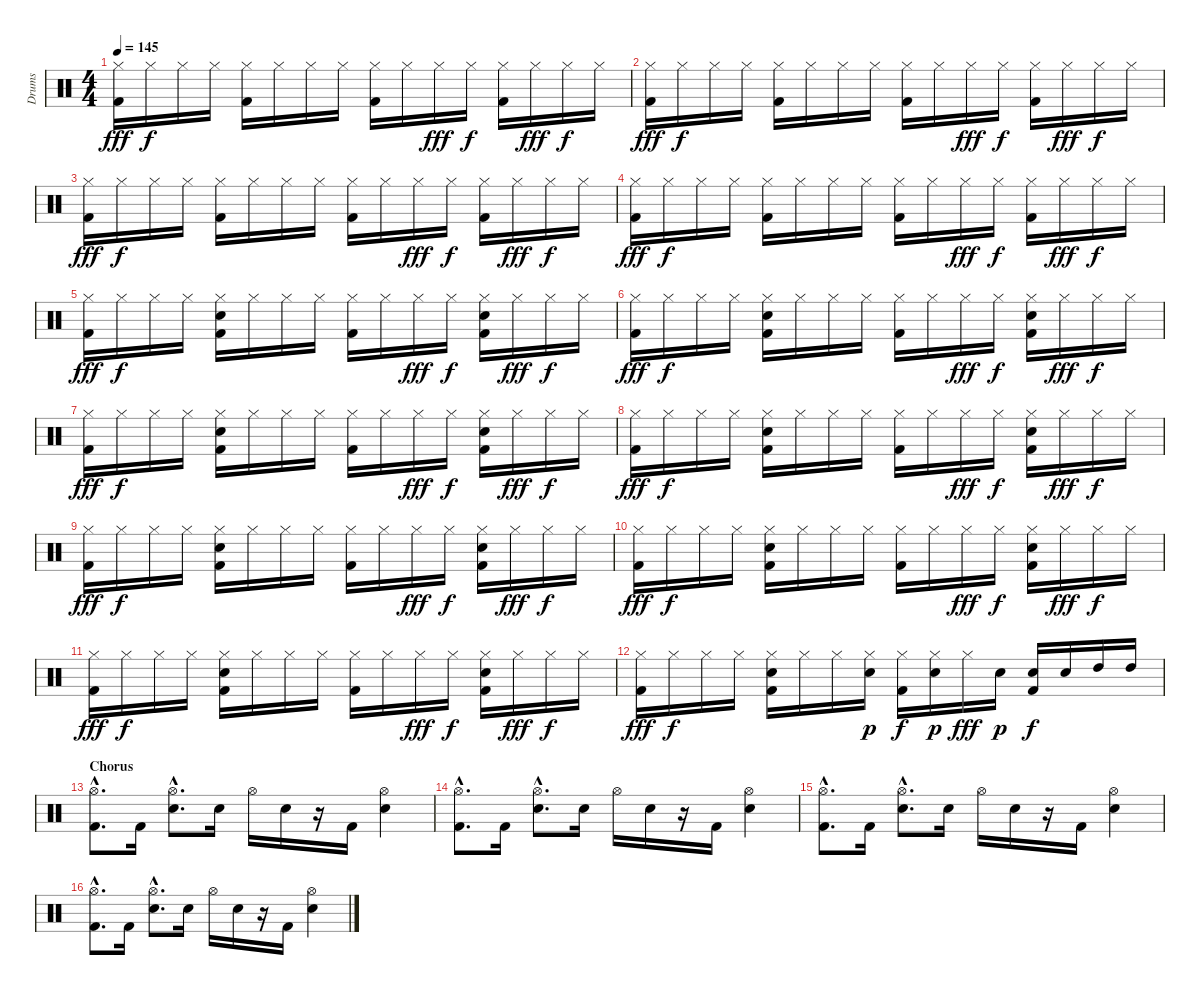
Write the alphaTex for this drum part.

\track ("Drums" "Drums") {instrument percussion}
\staff {score}
\articulation defaults
\ts (4 4)
\tempo 145
\clef neutral
\ks c
("Hi-Hat (closed)" "Kick (hit) 2").16{dy fff} "Hi-Hat (closed)".16{dy f} "Hi-Hat (closed)".16 "Hi-Hat (closed)".16 ("Hi-Hat (closed)" "Kick (hit) 2").16 "Hi-Hat (closed)".16 "Hi-Hat (closed)".16 "Hi-Hat (closed)".16 ("Hi-Hat (closed)" "Kick (hit) 2").16 "Hi-Hat (closed)".16 "Hi-Hat (closed)".16{dy fff} "Hi-Hat (closed)".16{dy f} ("Hi-Hat (closed)" "Kick (hit) 2").16 "Hi-Hat (closed)".16{dy fff} "Hi-Hat (closed)".16{dy f} "Hi-Hat (closed)".16 |
("Hi-Hat (closed)" "Kick (hit) 2").16{dy fff} "Hi-Hat (closed)".16{dy f} "Hi-Hat (closed)".16 "Hi-Hat (closed)".16 ("Hi-Hat (closed)" "Kick (hit) 2").16 "Hi-Hat (closed)".16 "Hi-Hat (closed)".16 "Hi-Hat (closed)".16 ("Hi-Hat (closed)" "Kick (hit) 2").16 "Hi-Hat (closed)".16 "Hi-Hat (closed)".16{dy fff} "Hi-Hat (closed)".16{dy f} ("Hi-Hat (closed)" "Kick (hit) 2").16 "Hi-Hat (closed)".16{dy fff} "Hi-Hat (closed)".16{dy f} "Hi-Hat (closed)".16 |
("Hi-Hat (closed)" "Kick (hit) 2").16{dy fff} "Hi-Hat (closed)".16{dy f} "Hi-Hat (closed)".16 "Hi-Hat (closed)".16 ("Hi-Hat (closed)" "Kick (hit) 2").16 "Hi-Hat (closed)".16 "Hi-Hat (closed)".16 "Hi-Hat (closed)".16 ("Hi-Hat (closed)" "Kick (hit) 2").16 "Hi-Hat (closed)".16 "Hi-Hat (closed)".16{dy fff} "Hi-Hat (closed)".16{dy f} ("Hi-Hat (closed)" "Kick (hit) 2").16 "Hi-Hat (closed)".16{dy fff} "Hi-Hat (closed)".16{dy f} "Hi-Hat (closed)".16 |
("Hi-Hat (closed)" "Kick (hit) 2").16{dy fff} "Hi-Hat (closed)".16{dy f} "Hi-Hat (closed)".16 "Hi-Hat (closed)".16 ("Hi-Hat (closed)" "Kick (hit) 2").16 "Hi-Hat (closed)".16 "Hi-Hat (closed)".16 "Hi-Hat (closed)".16 ("Hi-Hat (closed)" "Kick (hit) 2").16 "Hi-Hat (closed)".16 "Hi-Hat (closed)".16{dy fff} "Hi-Hat (closed)".16{dy f} ("Hi-Hat (closed)" "Kick (hit) 2").16 "Hi-Hat (closed)".16{dy fff} "Hi-Hat (closed)".16{dy f} "Hi-Hat (closed)".16 |
("Hi-Hat (closed)" "Kick (hit) 2").16{dy fff} "Hi-Hat (closed)".16{dy f} "Hi-Hat (closed)".16 "Hi-Hat (closed)".16 ("Hi-Hat (closed)" "Electric Snare (hit)" "Kick (hit) 2").16 "Hi-Hat (closed)".16 "Hi-Hat (closed)".16 "Hi-Hat (closed)".16 ("Hi-Hat (closed)" "Kick (hit) 2").16 "Hi-Hat (closed)".16 "Hi-Hat (closed)".16{dy fff} "Hi-Hat (closed)".16{dy f} ("Hi-Hat (closed)" "Electric Snare (hit)" "Kick (hit) 2").16 "Hi-Hat (closed)".16{dy fff} "Hi-Hat (closed)".16{dy f} "Hi-Hat (closed)".16 |
("Hi-Hat (closed)" "Kick (hit) 2").16{dy fff} "Hi-Hat (closed)".16{dy f} "Hi-Hat (closed)".16 "Hi-Hat (closed)".16 ("Hi-Hat (closed)" "Electric Snare (hit)" "Kick (hit) 2").16 "Hi-Hat (closed)".16 "Hi-Hat (closed)".16 "Hi-Hat (closed)".16 ("Hi-Hat (closed)" "Kick (hit) 2").16 "Hi-Hat (closed)".16 "Hi-Hat (closed)".16{dy fff} "Hi-Hat (closed)".16{dy f} ("Hi-Hat (closed)" "Electric Snare (hit)" "Kick (hit) 2").16 "Hi-Hat (closed)".16{dy fff} "Hi-Hat (closed)".16{dy f} "Hi-Hat (closed)".16 |
("Hi-Hat (closed)" "Kick (hit) 2").16{dy fff} "Hi-Hat (closed)".16{dy f} "Hi-Hat (closed)".16 "Hi-Hat (closed)".16 ("Hi-Hat (closed)" "Electric Snare (hit)" "Kick (hit) 2").16 "Hi-Hat (closed)".16 "Hi-Hat (closed)".16 "Hi-Hat (closed)".16 ("Hi-Hat (closed)" "Kick (hit) 2").16 "Hi-Hat (closed)".16 "Hi-Hat (closed)".16{dy fff} "Hi-Hat (closed)".16{dy f} ("Hi-Hat (closed)" "Electric Snare (hit)" "Kick (hit) 2").16 "Hi-Hat (closed)".16{dy fff} "Hi-Hat (closed)".16{dy f} "Hi-Hat (closed)".16 |
("Hi-Hat (closed)" "Kick (hit) 2").16{dy fff} "Hi-Hat (closed)".16{dy f} "Hi-Hat (closed)".16 "Hi-Hat (closed)".16 ("Hi-Hat (closed)" "Electric Snare (hit)" "Kick (hit) 2").16 "Hi-Hat (closed)".16 "Hi-Hat (closed)".16 "Hi-Hat (closed)".16 ("Hi-Hat (closed)" "Kick (hit) 2").16 "Hi-Hat (closed)".16 "Hi-Hat (closed)".16{dy fff} "Hi-Hat (closed)".16{dy f} ("Hi-Hat (closed)" "Electric Snare (hit)" "Kick (hit) 2").16 "Hi-Hat (closed)".16{dy fff} "Hi-Hat (closed)".16{dy f} "Hi-Hat (closed)".16 |
("Hi-Hat (closed)" "Kick (hit) 2").16{dy fff} "Hi-Hat (closed)".16{dy f} "Hi-Hat (closed)".16 "Hi-Hat (closed)".16 ("Hi-Hat (closed)" "Electric Snare (hit)" "Kick (hit) 2").16 "Hi-Hat (closed)".16 "Hi-Hat (closed)".16 "Hi-Hat (closed)".16 ("Hi-Hat (closed)" "Kick (hit) 2").16 "Hi-Hat (closed)".16 "Hi-Hat (closed)".16{dy fff} "Hi-Hat (closed)".16{dy f} ("Hi-Hat (closed)" "Electric Snare (hit)" "Kick (hit) 2").16 "Hi-Hat (closed)".16{dy fff} "Hi-Hat (closed)".16{dy f} "Hi-Hat (closed)".16 |
("Hi-Hat (closed)" "Kick (hit) 2").16{dy fff} "Hi-Hat (closed)".16{dy f} "Hi-Hat (closed)".16 "Hi-Hat (closed)".16 ("Hi-Hat (closed)" "Electric Snare (hit)" "Kick (hit) 2").16 "Hi-Hat (closed)".16 "Hi-Hat (closed)".16 "Hi-Hat (closed)".16 ("Hi-Hat (closed)" "Kick (hit) 2").16 "Hi-Hat (closed)".16 "Hi-Hat (closed)".16{dy fff} "Hi-Hat (closed)".16{dy f} ("Hi-Hat (closed)" "Electric Snare (hit)" "Kick (hit) 2").16 "Hi-Hat (closed)".16{dy fff} "Hi-Hat (closed)".16{dy f} "Hi-Hat (closed)".16 |
("Hi-Hat (closed)" "Kick (hit) 2").16{dy fff} "Hi-Hat (closed)".16{dy f} "Hi-Hat (closed)".16 "Hi-Hat (closed)".16 ("Hi-Hat (closed)" "Electric Snare (hit)" "Kick (hit) 2").16 "Hi-Hat (closed)".16 "Hi-Hat (closed)".16 "Hi-Hat (closed)".16 ("Hi-Hat (closed)" "Kick (hit) 2").16 "Hi-Hat (closed)".16 "Hi-Hat (closed)".16{dy fff} "Hi-Hat (closed)".16{dy f} ("Hi-Hat (closed)" "Electric Snare (hit)" "Kick (hit) 2").16 "Hi-Hat (closed)".16{dy fff} "Hi-Hat (closed)".16{dy f} "Hi-Hat (closed)".16 |
("Hi-Hat (closed)" "Kick (hit) 2").16{dy fff} "Hi-Hat (closed)".16{dy f} "Hi-Hat (closed)".16 "Hi-Hat (closed)".16 ("Hi-Hat (closed)" "Electric Snare (hit)" "Kick (hit) 2").16 "Hi-Hat (closed)".16 "Hi-Hat (closed)".16 ("Hi-Hat (closed)" "Electric Snare (hit)").16{dy p} ("Hi-Hat (closed)" "Kick (hit) 2").16{dy f} ("Hi-Hat (closed)" "Electric Snare (hit)").16{dy p} "Hi-Hat (closed)".16{dy fff} "Electric Snare (hit)".16{dy p} ("Electric Snare (hit)" "Kick (hit) 2").16{dy f} "Electric Snare (hit)".16 "High Tom (hit)".16 "High Tom (hit)".16 |
\section ("" "Chorus")
("Hi-Hat (open)"{hac} "Kick (hit) 2"{hac}).8{d} "Kick (hit) 2".16 ("Hi-Hat (open)"{hac} "Electric Snare (hit)"{hac}).8{d} "Electric Snare (hit)".16 "Hi-Hat (open)".16 "Electric Snare (hit)".16 r.16 "Kick (hit) 2".16 ("Hi-Hat (open)" "Electric Snare (hit)").4 |
("Hi-Hat (open)"{hac} "Kick (hit) 2"{hac}).8{d} "Kick (hit) 2".16 ("Hi-Hat (open)"{hac} "Electric Snare (hit)"{hac}).8{d} "Electric Snare (hit)".16 "Hi-Hat (open)".16 "Electric Snare (hit)".16 r.16 "Kick (hit) 2".16 ("Hi-Hat (open)" "Electric Snare (hit)").4 |
("Hi-Hat (open)"{hac} "Kick (hit) 2"{hac}).8{d} "Kick (hit) 2".16 ("Hi-Hat (open)"{hac} "Electric Snare (hit)"{hac}).8{d} "Electric Snare (hit)".16 "Hi-Hat (open)".16 "Electric Snare (hit)".16 r.16 "Kick (hit) 2".16 ("Hi-Hat (open)" "Electric Snare (hit)").4 |
("Hi-Hat (open)"{hac} "Kick (hit) 2"{hac}).8{d} "Kick (hit) 2".16 ("Hi-Hat (open)"{hac} "Electric Snare (hit)"{hac}).8{d} "Electric Snare (hit)".16 "Hi-Hat (open)".16 "Electric Snare (hit)".16 r.16 "Kick (hit) 2".16 ("Hi-Hat (open)" "Electric Snare (hit)").4
